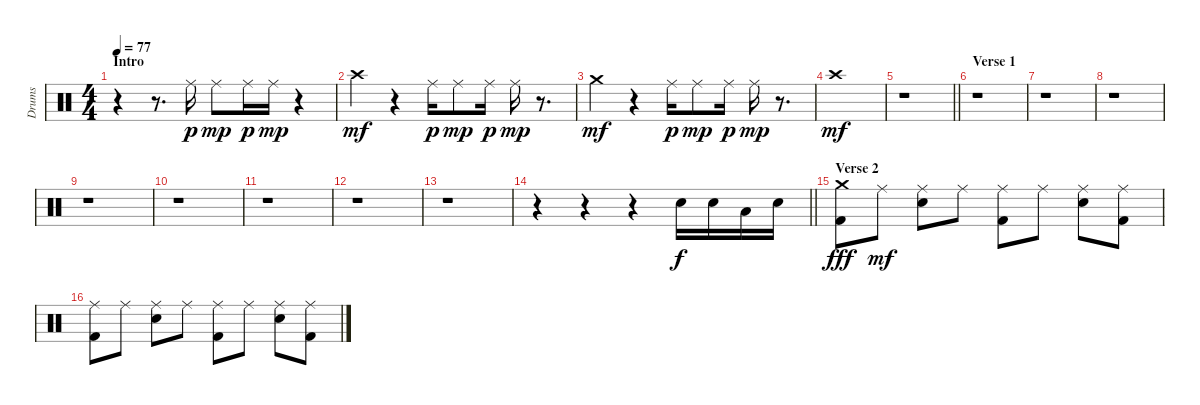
\track ("Drums" "Drums") {instrument percussion}
\staff {score}
\articulation defaults
\ts (4 4)
\section ("" "Intro")
\tempo 77
\clef neutral
\ks c
r.4{dy p volume 8} r.8{d} "Ride (middle)".16 "Ride (middle)".8{dy mp} "Ride (middle)".16{dy p} "Ride (middle)".16{dy mp} r.4 |
"Crash high (hit)".4{dy mf} r.4 "Ride (middle)".16{dy p} "Ride (middle)".8{dy mp} "Ride (middle)".16{dy p} "Ride (middle)".16{dy mp} r.8{d} |
"Crash medium (hit)".4{dy mf} r.4 "Ride (middle)".16{dy p} "Ride (middle)".8{dy mp} "Ride (middle)".16{dy p} "Ride (middle)".16{dy mp} r.8{d} |
"Crash high (hit)".1{dy mf} |
\barLineRight lightlight
r.1 |
\section ("" "Verse 1")
r.1 |
r.1 |
r.1 |
r.1 |
r.1 |
r.1 |
r.1 |
r.1 |
\barLineRight lightlight
r.4{volume 14} r.4 r.4 "Electric Snare (hit)".16{dy f} "Electric Snare (hit)".16 "Low Tom (hit)".16 "Electric Snare (hit)".16 |
\section ("" "Verse 2")
("Crash medium (hit)" "Kick (hit) 2").8{dy fff} "Ride (middle)".8{dy mf} ("Ride (middle)" "Electric Snare (hit)").8 "Ride (middle)".8 ("Ride (middle)" "Kick (hit) 2").8 "Ride (middle)".8 ("Ride (middle)" "Electric Snare (hit)").8 ("Ride (middle)" "Kick (hit) 2").8 |
("Ride (middle)" "Kick (hit) 2").8 "Ride (middle)".8 ("Ride (middle)" "Electric Snare (hit)").8 "Ride (middle)".8 ("Ride (middle)" "Kick (hit) 2").8 "Ride (middle)".8 ("Ride (middle)" "Electric Snare (hit)").8 ("Ride (middle)" "Kick (hit) 2").8
